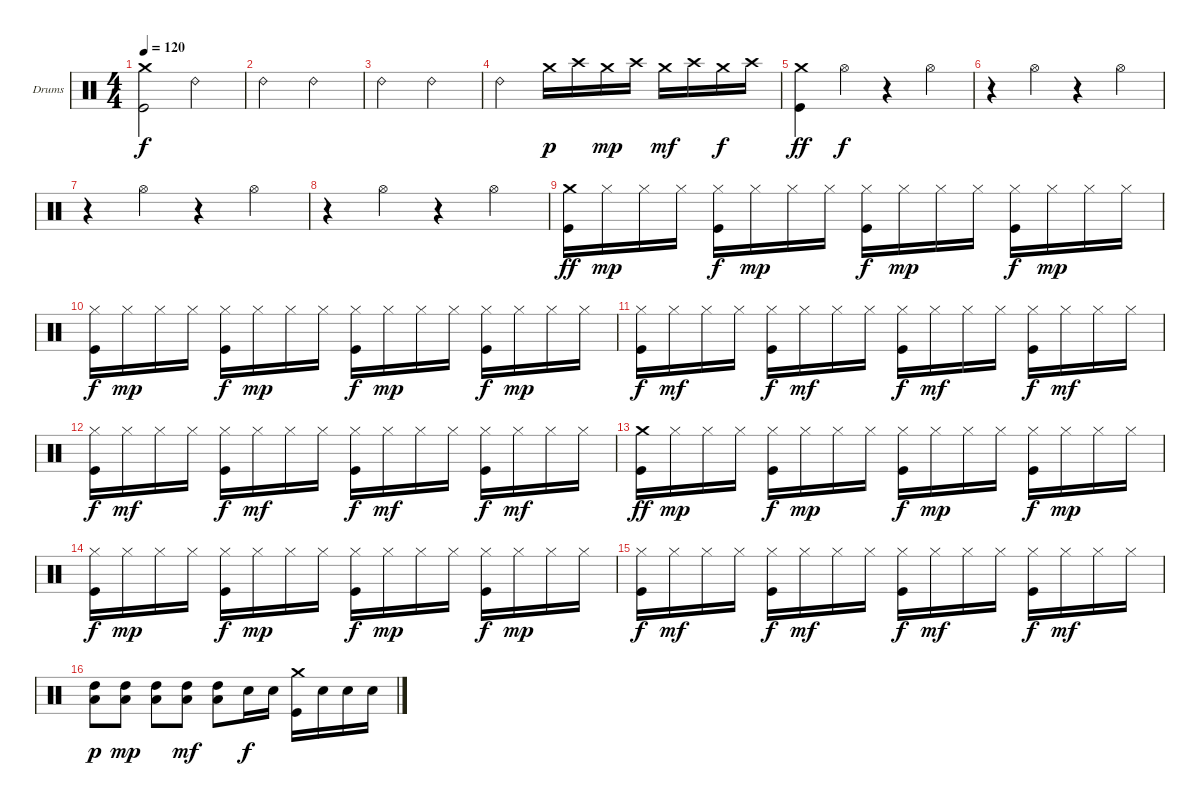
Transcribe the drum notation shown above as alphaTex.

\bracketExtendMode groupsimilarinstruments
\firstSystemTrackNameOrientation horizontal
\otherSystemsTrackNameOrientation horizontal
\track ("Drumkit" "Drums") {instrument percussion}
\staff {score}
\articulation defaults
\ts (4 4)
\beaming (8 2 2 2 2)
\tempo 120
\clef neutral
\ks c
("Crash medium (hit)" "Kick (hit)").2{dy f} "Ride (bell) 2".2 |
"Ride (bell) 2".2 "Ride (bell) 2".2 |
"Ride (bell) 2".2 "Ride (bell) 2".2 |
"Ride (bell) 2".2 "Crash medium (hit)".16{dy p} "Crash high (hit)".16 "Crash medium (hit)".16{dy mp} "Crash high (hit)".16 "Crash medium (hit)".16{dy mf} "Crash high (hit)".16 "Crash medium (hit)".16{dy f} "Crash high (hit)".16 |
("Crash medium (hit)" "Kick (hit)").4{dy ff} "Hi-Hat (open)".4{dy f} r.4 "Hi-Hat (open)".4 |
r.4 "Hi-Hat (open)".4 r.4 "Hi-Hat (open)".4 |
r.4 "Hi-Hat (open)".4 r.4 "Hi-Hat (open)".4 |
r.4 "Hi-Hat (open)".4 r.4 "Hi-Hat (open)".4 |
("Crash medium (hit)" "Kick (hit)").16{dy ff} "Hi-Hat (closed)".16{dy mp} "Hi-Hat (closed)".16 "Hi-Hat (closed)".16 ("Hi-Hat (closed)" "Kick (hit)").16{dy f} "Hi-Hat (closed)".16{dy mp} "Hi-Hat (closed)".16 "Hi-Hat (closed)".16 ("Hi-Hat (closed)" "Kick (hit)").16{dy f} "Hi-Hat (closed)".16{dy mp} "Hi-Hat (closed)".16 "Hi-Hat (closed)".16 ("Hi-Hat (closed)" "Kick (hit)").16{dy f} "Hi-Hat (closed)".16{dy mp} "Hi-Hat (closed)".16 "Hi-Hat (closed)".16 |
("Hi-Hat (closed)" "Kick (hit)").16{dy f} "Hi-Hat (closed)".16{dy mp} "Hi-Hat (closed)".16 "Hi-Hat (closed)".16 ("Hi-Hat (closed)" "Kick (hit)").16{dy f} "Hi-Hat (closed)".16{dy mp} "Hi-Hat (closed)".16 "Hi-Hat (closed)".16 ("Hi-Hat (closed)" "Kick (hit)").16{dy f} "Hi-Hat (closed)".16{dy mp} "Hi-Hat (closed)".16 "Hi-Hat (closed)".16 ("Hi-Hat (closed)" "Kick (hit)").16{dy f} "Hi-Hat (closed)".16{dy mp} "Hi-Hat (closed)".16 "Hi-Hat (closed)".16 |
("Hi-Hat (closed)" "Kick (hit)").16{dy f} "Hi-Hat (closed)".16{dy mf} "Hi-Hat (closed)".16 "Hi-Hat (closed)".16 ("Hi-Hat (closed)" "Kick (hit)").16{dy f} "Hi-Hat (closed)".16{dy mf} "Hi-Hat (closed)".16 "Hi-Hat (closed)".16 ("Hi-Hat (closed)" "Kick (hit)").16{dy f} "Hi-Hat (closed)".16{dy mf} "Hi-Hat (closed)".16 "Hi-Hat (closed)".16 ("Hi-Hat (closed)" "Kick (hit)").16{dy f} "Hi-Hat (closed)".16{dy mf} "Hi-Hat (closed)".16 "Hi-Hat (closed)".16 |
("Hi-Hat (closed)" "Kick (hit)").16{dy f} "Hi-Hat (closed)".16{dy mf} "Hi-Hat (closed)".16 "Hi-Hat (closed)".16 ("Hi-Hat (closed)" "Kick (hit)").16{dy f} "Hi-Hat (closed)".16{dy mf} "Hi-Hat (closed)".16 "Hi-Hat (closed)".16 ("Hi-Hat (closed)" "Kick (hit)").16{dy f} "Hi-Hat (closed)".16{dy mf} "Hi-Hat (closed)".16 "Hi-Hat (closed)".16 ("Hi-Hat (closed)" "Kick (hit)").16{dy f} "Hi-Hat (closed)".16{dy mf} "Hi-Hat (closed)".16 "Hi-Hat (closed)".16 |
("Crash medium (hit)" "Kick (hit)").16{dy ff} "Hi-Hat (closed)".16{dy mp} "Hi-Hat (closed)".16 "Hi-Hat (closed)".16 ("Hi-Hat (closed)" "Kick (hit)").16{dy f} "Hi-Hat (closed)".16{dy mp} "Hi-Hat (closed)".16 "Hi-Hat (closed)".16 ("Hi-Hat (closed)" "Kick (hit)").16{dy f} "Hi-Hat (closed)".16{dy mp} "Hi-Hat (closed)".16 "Hi-Hat (closed)".16 ("Hi-Hat (closed)" "Kick (hit)").16{dy f} "Hi-Hat (closed)".16{dy mp} "Hi-Hat (closed)".16 "Hi-Hat (closed)".16 |
("Hi-Hat (closed)" "Kick (hit)").16{dy f} "Hi-Hat (closed)".16{dy mp} "Hi-Hat (closed)".16 "Hi-Hat (closed)".16 ("Hi-Hat (closed)" "Kick (hit)").16{dy f} "Hi-Hat (closed)".16{dy mp} "Hi-Hat (closed)".16 "Hi-Hat (closed)".16 ("Hi-Hat (closed)" "Kick (hit)").16{dy f} "Hi-Hat (closed)".16{dy mp} "Hi-Hat (closed)".16 "Hi-Hat (closed)".16 ("Hi-Hat (closed)" "Kick (hit)").16{dy f} "Hi-Hat (closed)".16{dy mp} "Hi-Hat (closed)".16 "Hi-Hat (closed)".16 |
("Hi-Hat (closed)" "Kick (hit)").16{dy f} "Hi-Hat (closed)".16{dy mf} "Hi-Hat (closed)".16 "Hi-Hat (closed)".16 ("Hi-Hat (closed)" "Kick (hit)").16{dy f} "Hi-Hat (closed)".16{dy mf} "Hi-Hat (closed)".16 "Hi-Hat (closed)".16 ("Hi-Hat (closed)" "Kick (hit)").16{dy f} "Hi-Hat (closed)".16{dy mf} "Hi-Hat (closed)".16 "Hi-Hat (closed)".16 ("Hi-Hat (closed)" "Kick (hit)").16{dy f} "Hi-Hat (closed)".16{dy mf} "Hi-Hat (closed)".16 "Hi-Hat (closed)".16 |
("Low Tom (hit)" "High Tom (hit)").8{dy p} ("Low Tom (hit)" "High Tom (hit)").8{dy mp} ("High Tom (hit)" "Low Tom (hit)").8 ("High Tom (hit)" "Low Tom (hit)").8{dy mf} ("High Tom (hit)" "Low Tom (hit)").8 "Snare (hit) 2".16{dy f} "Snare (hit) 2".16 ("Crash medium (hit)" "Kick (hit)").16 "Snare (hit) 2".16 "Snare (hit) 2".16 "Snare (hit) 2".16
